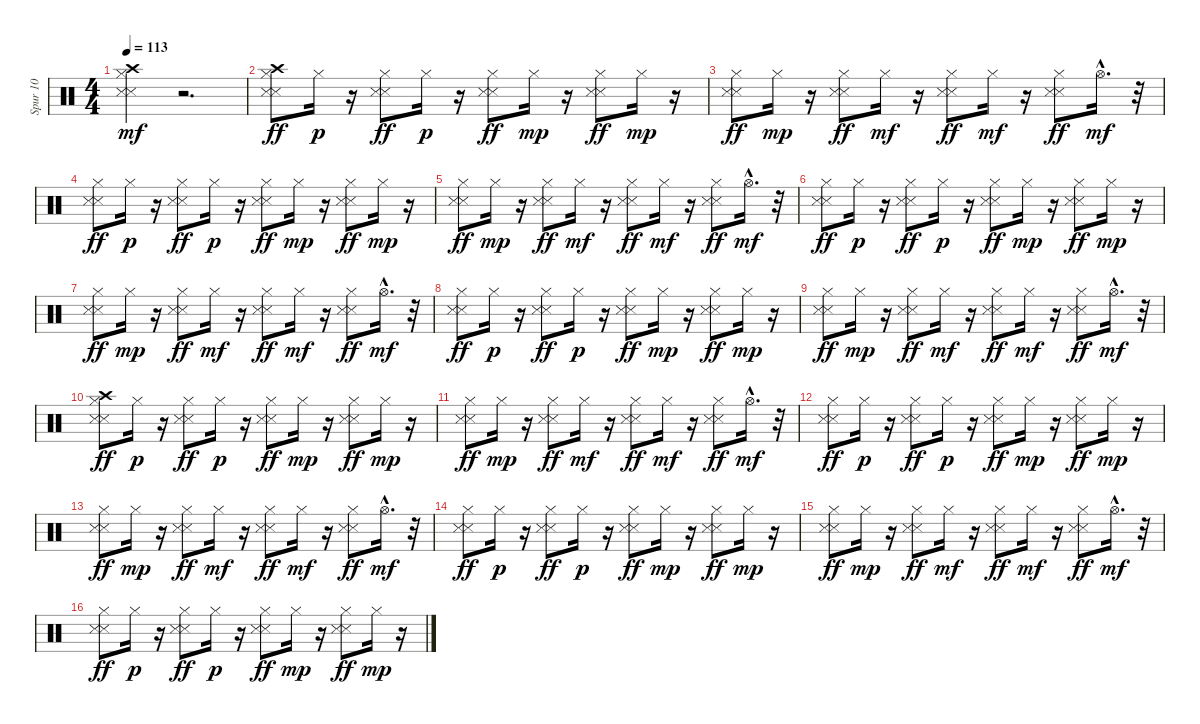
\track ("Spur 10" "Spur 10") {instrument percussion}
\staff {score}
\articulation defaults
\ts (4 4)
\tempo 113
\clef neutral
\ks c
("Hi-Hat (closed)" "Snare (side stick) 3" "Snare (side stick) 3" "Crash high (hit)").4{dy mf} r.2{d} |
("Hi-Hat (closed)" "Snare (side stick) 3" "Snare (side stick) 3" "Crash high (hit)").8{dy ff} "Hi-Hat (closed)".16{dy p} r.16 ("Hi-Hat (closed)" "Snare (side stick) 3" "Snare (side stick) 3").8{dy ff} "Hi-Hat (closed)".16{dy p} r.16 ("Hi-Hat (closed)" "Snare (side stick) 3" "Snare (side stick) 3").8{dy ff} "Hi-Hat (closed)".16{dy mp} r.16 ("Hi-Hat (closed)" "Snare (side stick) 3" "Snare (side stick) 3").8{dy ff} "Hi-Hat (closed)".16{dy mp} r.16 |
("Hi-Hat (closed)" "Snare (side stick) 3" "Snare (side stick) 3").8{dy ff} "Hi-Hat (closed)".16{dy mp} r.16 ("Hi-Hat (closed)" "Snare (side stick) 3" "Snare (side stick) 3").8{dy ff} "Hi-Hat (closed)".16{dy mf} r.16 ("Hi-Hat (closed)" "Snare (side stick) 3" "Snare (side stick) 3").8{dy ff} "Hi-Hat (closed)".16{dy mf} r.16 ("Snare (side stick) 3" "Snare (side stick) 3" "Hi-Hat (closed)").8{dy ff} "Hi-Hat (open)"{hac}.16{d dy mf} r.32 |
("Hi-Hat (closed)" "Snare (side stick) 3" "Snare (side stick) 3").8{dy ff} "Hi-Hat (closed)".16{dy p} r.16 ("Hi-Hat (closed)" "Snare (side stick) 3" "Snare (side stick) 3").8{dy ff} "Hi-Hat (closed)".16{dy p} r.16 ("Hi-Hat (closed)" "Snare (side stick) 3" "Snare (side stick) 3").8{dy ff} "Hi-Hat (closed)".16{dy mp} r.16 ("Hi-Hat (closed)" "Snare (side stick) 3" "Snare (side stick) 3").8{dy ff} "Hi-Hat (closed)".16{dy mp} r.16 |
("Hi-Hat (closed)" "Snare (side stick) 3" "Snare (side stick) 3").8{dy ff} "Hi-Hat (closed)".16{dy mp} r.16 ("Hi-Hat (closed)" "Snare (side stick) 3" "Snare (side stick) 3").8{dy ff} "Hi-Hat (closed)".16{dy mf} r.16 ("Hi-Hat (closed)" "Snare (side stick) 3" "Snare (side stick) 3").8{dy ff} "Hi-Hat (closed)".16{dy mf} r.16 ("Snare (side stick) 3" "Snare (side stick) 3" "Hi-Hat (closed)").8{dy ff} "Hi-Hat (open)"{hac}.16{d dy mf} r.32 |
("Hi-Hat (closed)" "Snare (side stick) 3" "Snare (side stick) 3").8{dy ff} "Hi-Hat (closed)".16{dy p} r.16 ("Hi-Hat (closed)" "Snare (side stick) 3" "Snare (side stick) 3").8{dy ff} "Hi-Hat (closed)".16{dy p} r.16 ("Hi-Hat (closed)" "Snare (side stick) 3" "Snare (side stick) 3").8{dy ff} "Hi-Hat (closed)".16{dy mp} r.16 ("Hi-Hat (closed)" "Snare (side stick) 3" "Snare (side stick) 3").8{dy ff} "Hi-Hat (closed)".16{dy mp} r.16 |
("Hi-Hat (closed)" "Snare (side stick) 3" "Snare (side stick) 3").8{dy ff} "Hi-Hat (closed)".16{dy mp} r.16 ("Hi-Hat (closed)" "Snare (side stick) 3" "Snare (side stick) 3").8{dy ff} "Hi-Hat (closed)".16{dy mf} r.16 ("Hi-Hat (closed)" "Snare (side stick) 3" "Snare (side stick) 3").8{dy ff} "Hi-Hat (closed)".16{dy mf} r.16 ("Snare (side stick) 3" "Snare (side stick) 3" "Hi-Hat (closed)").8{dy ff} "Hi-Hat (open)"{hac}.16{d dy mf} r.32 |
("Hi-Hat (closed)" "Snare (side stick) 3" "Snare (side stick) 3").8{dy ff} "Hi-Hat (closed)".16{dy p} r.16 ("Hi-Hat (closed)" "Snare (side stick) 3" "Snare (side stick) 3").8{dy ff} "Hi-Hat (closed)".16{dy p} r.16 ("Hi-Hat (closed)" "Snare (side stick) 3" "Snare (side stick) 3").8{dy ff} "Hi-Hat (closed)".16{dy mp} r.16 ("Hi-Hat (closed)" "Snare (side stick) 3" "Snare (side stick) 3").8{dy ff} "Hi-Hat (closed)".16{dy mp} r.16 |
("Hi-Hat (closed)" "Snare (side stick) 3" "Snare (side stick) 3").8{dy ff} "Hi-Hat (closed)".16{dy mp} r.16 ("Hi-Hat (closed)" "Snare (side stick) 3" "Snare (side stick) 3").8{dy ff} "Hi-Hat (closed)".16{dy mf} r.16 ("Hi-Hat (closed)" "Snare (side stick) 3" "Snare (side stick) 3").8{dy ff} "Hi-Hat (closed)".16{dy mf} r.16 ("Snare (side stick) 3" "Snare (side stick) 3" "Hi-Hat (closed)").8{dy ff} "Hi-Hat (open)"{hac}.16{d dy mf} r.32 |
("Crash high (hit)" "Hi-Hat (closed)" "Snare (side stick) 3" "Snare (side stick) 3").8{dy ff} "Hi-Hat (closed)".16{dy p} r.16 ("Hi-Hat (closed)" "Snare (side stick) 3" "Snare (side stick) 3").8{dy ff} "Hi-Hat (closed)".16{dy p} r.16 ("Hi-Hat (closed)" "Snare (side stick) 3" "Snare (side stick) 3").8{dy ff} "Hi-Hat (closed)".16{dy mp} r.16 ("Hi-Hat (closed)" "Snare (side stick) 3" "Snare (side stick) 3").8{dy ff} "Hi-Hat (closed)".16{dy mp} r.16 |
("Hi-Hat (closed)" "Snare (side stick) 3" "Snare (side stick) 3").8{dy ff} "Hi-Hat (closed)".16{dy mp} r.16 ("Hi-Hat (closed)" "Snare (side stick) 3" "Snare (side stick) 3").8{dy ff} "Hi-Hat (closed)".16{dy mf} r.16 ("Hi-Hat (closed)" "Snare (side stick) 3" "Snare (side stick) 3").8{dy ff} "Hi-Hat (closed)".16{dy mf} r.16 ("Snare (side stick) 3" "Snare (side stick) 3" "Hi-Hat (closed)").8{dy ff} "Hi-Hat (open)"{hac}.16{d dy mf} r.32 |
("Hi-Hat (closed)" "Snare (side stick) 3" "Snare (side stick) 3").8{dy ff} "Hi-Hat (closed)".16{dy p} r.16 ("Hi-Hat (closed)" "Snare (side stick) 3" "Snare (side stick) 3").8{dy ff} "Hi-Hat (closed)".16{dy p} r.16 ("Hi-Hat (closed)" "Snare (side stick) 3" "Snare (side stick) 3").8{dy ff} "Hi-Hat (closed)".16{dy mp} r.16 ("Hi-Hat (closed)" "Snare (side stick) 3" "Snare (side stick) 3").8{dy ff} "Hi-Hat (closed)".16{dy mp} r.16 |
("Hi-Hat (closed)" "Snare (side stick) 3" "Snare (side stick) 3").8{dy ff} "Hi-Hat (closed)".16{dy mp} r.16 ("Hi-Hat (closed)" "Snare (side stick) 3" "Snare (side stick) 3").8{dy ff} "Hi-Hat (closed)".16{dy mf} r.16 ("Hi-Hat (closed)" "Snare (side stick) 3" "Snare (side stick) 3").8{dy ff} "Hi-Hat (closed)".16{dy mf} r.16 ("Snare (side stick) 3" "Snare (side stick) 3" "Hi-Hat (closed)").8{dy ff} "Hi-Hat (open)"{hac}.16{d dy mf} r.32 |
("Hi-Hat (closed)" "Snare (side stick) 3" "Snare (side stick) 3").8{dy ff} "Hi-Hat (closed)".16{dy p} r.16 ("Hi-Hat (closed)" "Snare (side stick) 3" "Snare (side stick) 3").8{dy ff} "Hi-Hat (closed)".16{dy p} r.16 ("Hi-Hat (closed)" "Snare (side stick) 3" "Snare (side stick) 3").8{dy ff} "Hi-Hat (closed)".16{dy mp} r.16 ("Hi-Hat (closed)" "Snare (side stick) 3" "Snare (side stick) 3").8{dy ff} "Hi-Hat (closed)".16{dy mp} r.16 |
("Hi-Hat (closed)" "Snare (side stick) 3" "Snare (side stick) 3").8{dy ff} "Hi-Hat (closed)".16{dy mp} r.16 ("Hi-Hat (closed)" "Snare (side stick) 3" "Snare (side stick) 3").8{dy ff} "Hi-Hat (closed)".16{dy mf} r.16 ("Hi-Hat (closed)" "Snare (side stick) 3" "Snare (side stick) 3").8{dy ff} "Hi-Hat (closed)".16{dy mf} r.16 ("Snare (side stick) 3" "Snare (side stick) 3" "Hi-Hat (closed)").8{dy ff} "Hi-Hat (open)"{hac}.16{d dy mf} r.32 |
("Hi-Hat (closed)" "Snare (side stick) 3" "Snare (side stick) 3").8{dy ff} "Hi-Hat (closed)".16{dy p} r.16 ("Hi-Hat (closed)" "Snare (side stick) 3" "Snare (side stick) 3").8{dy ff} "Hi-Hat (closed)".16{dy p} r.16 ("Hi-Hat (closed)" "Snare (side stick) 3" "Snare (side stick) 3").8{dy ff} "Hi-Hat (closed)".16{dy mp} r.16 ("Hi-Hat (closed)" "Snare (side stick) 3" "Snare (side stick) 3").8{dy ff} "Hi-Hat (closed)".16{dy mp} r.16
